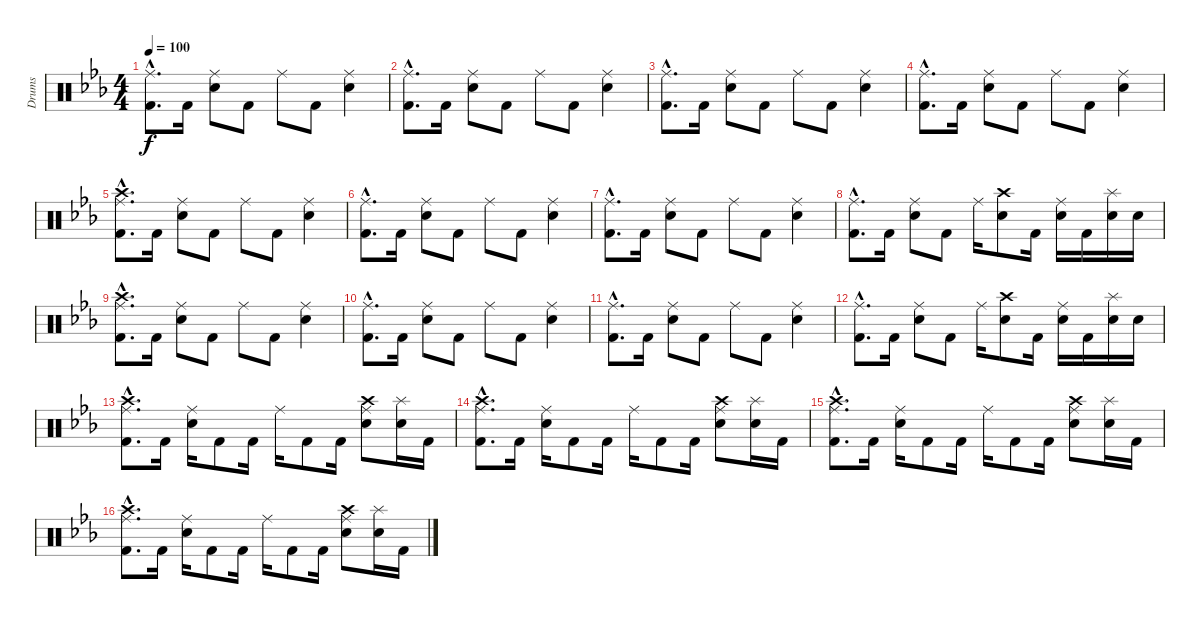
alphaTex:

\track ("Drums" "Drums") {instrument percussion}
\staff {score}
\articulation defaults
\ts (4 4)
\tempo 100
\clef neutral
\ks cminor
("Ride (middle)"{hac} "Kick (hit) 2"{hac}).8{d dy f} "Kick (hit) 2".16 ("Ride (middle)" "Electric Snare (hit)").8 "Kick (hit) 2".8 "Ride (middle)".8 "Kick (hit) 2".8 ("Ride (middle)" "Electric Snare (hit)").4 |
("Ride (middle)"{hac} "Kick (hit) 2"{hac}).8{d} "Kick (hit) 2".16 ("Ride (middle)" "Electric Snare (hit)").8 "Kick (hit) 2".8 "Ride (middle)".8 "Kick (hit) 2".8 ("Ride (middle)" "Electric Snare (hit)").4 |
("Ride (middle)"{hac} "Kick (hit) 2"{hac}).8{d} "Kick (hit) 2".16 ("Ride (middle)" "Electric Snare (hit)").8 "Kick (hit) 2".8 "Ride (middle)".8 "Kick (hit) 2".8 ("Ride (middle)" "Electric Snare (hit)").4 |
("Ride (middle)"{hac} "Kick (hit) 2"{hac}).8{d} "Kick (hit) 2".16 ("Ride (middle)" "Electric Snare (hit)").8 "Kick (hit) 2".8 "Ride (middle)".8 "Kick (hit) 2".8 ("Ride (middle)" "Electric Snare (hit)").4 |
("Ride (middle)"{hac} "Crash high (hit)"{hac} "Kick (hit) 2"{hac}).8{d} "Kick (hit) 2".16 ("Ride (middle)" "Electric Snare (hit)").8 "Kick (hit) 2".8 "Ride (middle)".8 "Kick (hit) 2".8 ("Ride (middle)" "Electric Snare (hit)").4 |
("Ride (middle)"{hac} "Kick (hit) 2"{hac}).8{d} "Kick (hit) 2".16 ("Ride (middle)" "Electric Snare (hit)").8 "Kick (hit) 2".8 "Ride (middle)".8 "Kick (hit) 2".8 ("Ride (middle)" "Electric Snare (hit)").4 |
("Ride (middle)"{hac} "Kick (hit) 2"{hac}).8{d} "Kick (hit) 2".16 ("Ride (middle)" "Electric Snare (hit)").8 "Kick (hit) 2".8 "Ride (middle)".8 "Kick (hit) 2".8 ("Ride (middle)" "Electric Snare (hit)").4 |
("Ride (middle)"{hac} "Kick (hit) 2"{hac}).8{d} "Kick (hit) 2".16 ("Ride (middle)" "Electric Snare (hit)").8 "Kick (hit) 2".8 "Ride (middle)".16 ("Crash high (hit)" "Electric Snare (hit)").8 "Kick (hit) 2".16 ("Ride (middle)" "Electric Snare (hit)").16 "Kick (hit) 2".16 ("Splash (hit)" "Electric Snare (hit)").16 "Electric Snare (hit)".16 |
("Ride (middle)"{hac} "Crash high (hit)"{hac} "Kick (hit) 2"{hac}).8{d} "Kick (hit) 2".16 ("Ride (middle)" "Electric Snare (hit)").8 "Kick (hit) 2".8 "Ride (middle)".8 "Kick (hit) 2".8 ("Ride (middle)" "Electric Snare (hit)").4 |
("Ride (middle)"{hac} "Kick (hit) 2"{hac}).8{d} "Kick (hit) 2".16 ("Ride (middle)" "Electric Snare (hit)").8 "Kick (hit) 2".8 "Ride (middle)".8 "Kick (hit) 2".8 ("Ride (middle)" "Electric Snare (hit)").4 |
("Ride (middle)"{hac} "Kick (hit) 2"{hac}).8{d} "Kick (hit) 2".16 ("Ride (middle)" "Electric Snare (hit)").8 "Kick (hit) 2".8 "Ride (middle)".8 "Kick (hit) 2".8 ("Ride (middle)" "Electric Snare (hit)").4 |
("Ride (middle)"{hac} "Kick (hit) 2"{hac}).8{d} "Kick (hit) 2".16 ("Ride (middle)" "Electric Snare (hit)").8 "Kick (hit) 2".8 "Ride (middle)".16 ("Crash high (hit)" "Electric Snare (hit)").8 "Kick (hit) 2".16 ("Ride (middle)" "Electric Snare (hit)").16 "Kick (hit) 2".16 ("Splash (hit)" "Electric Snare (hit)").16 "Electric Snare (hit)".16 |
("Ride (middle)"{hac} "Crash high (hit)"{hac} "Kick (hit) 2"{hac}).8{d} "Kick (hit) 2".16 ("Ride (middle)" "Electric Snare (hit)").16 "Kick (hit) 2".8 "Kick (hit) 2".16 "Ride (middle)".16 "Kick (hit) 2".8 "Kick (hit) 2".16 ("Ride (middle)" "Crash high (hit)" "Electric Snare (hit)").8 ("Splash (hit)" "Electric Snare (hit)").16 "Kick (hit) 2".16 |
("Ride (middle)"{hac} "Crash high (hit)"{hac} "Kick (hit) 2"{hac}).8{d} "Kick (hit) 2".16 ("Ride (middle)" "Electric Snare (hit)").16 "Kick (hit) 2".8 "Kick (hit) 2".16 "Ride (middle)".16 "Kick (hit) 2".8 "Kick (hit) 2".16 ("Ride (middle)" "Crash high (hit)" "Electric Snare (hit)").8 ("Splash (hit)" "Electric Snare (hit)").16 "Kick (hit) 2".16 |
("Ride (middle)"{hac} "Crash high (hit)"{hac} "Kick (hit) 2"{hac}).8{d} "Kick (hit) 2".16 ("Ride (middle)" "Electric Snare (hit)").16 "Kick (hit) 2".8 "Kick (hit) 2".16 "Ride (middle)".16 "Kick (hit) 2".8 "Kick (hit) 2".16 ("Ride (middle)" "Crash high (hit)" "Electric Snare (hit)").8 ("Splash (hit)" "Electric Snare (hit)").16 "Kick (hit) 2".16 |
("Ride (middle)"{hac} "Crash high (hit)"{hac} "Kick (hit) 2"{hac}).8{d} "Kick (hit) 2".16 ("Ride (middle)" "Electric Snare (hit)").16 "Kick (hit) 2".8 "Kick (hit) 2".16 "Ride (middle)".16 "Kick (hit) 2".8 "Kick (hit) 2".16 ("Ride (middle)" "Crash high (hit)" "Electric Snare (hit)").8 ("Splash (hit)" "Electric Snare (hit)").16 "Kick (hit) 2".16
